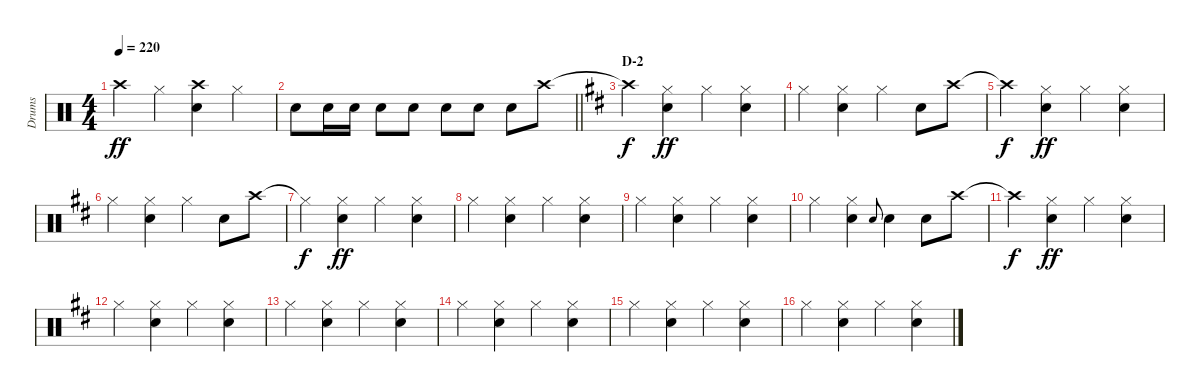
\track ("Drums" "Drums") {instrument percussion}
\staff {score}
\articulation defaults
\ts (4 4)
\tempo 220
\clef neutral
\ks c "Crash high (hit)".4{dy ff} "Hi-Hat (closed)".4
("Crash high (hit)" "Snare (hit) 2").4 "Hi-Hat (closed)".4 |
\barLineRight lightlight "Snare (hit) 2".8 "Snare (hit) 2".16 "Snare (hit) 2".16 "Snare (hit) 2".8 "Snare (hit) 2".8 "Snare (hit) 2".8 "Snare (hit) 2".8 "Snare (hit) 2".8 "Crash high (hit)".8
|
\section ("" "D-2")
\ks d "Crash high (hit)"{t}.4{dy f}
("Hi-Hat (closed)" "Snare (hit) 2").4{dy ff} "Hi-Hat (closed)".4 ("Hi-Hat (closed)" "Snare (hit) 2").4 |
"Hi-Hat (closed)".4 ("Hi-Hat (closed)" "Snare (hit) 2").4 "Hi-Hat (closed)".4 "Snare (hit) 2".8 "Crash high (hit)".8 |
"Crash high (hit)"{t}.4{dy f} ("Hi-Hat (closed)" "Snare (hit) 2").4{dy ff} "Hi-Hat (closed)".4 ("Hi-Hat (closed)" "Snare (hit) 2").4 |
"Hi-Hat (closed)".4 ("Hi-Hat (closed)" "Snare (hit) 2").4 "Hi-Hat (closed)".4 "Snare (hit) 2".8 "Crash high (hit)".8 |
"Hi-Hat (closed)"{t}.4{dy f} ("Hi-Hat (closed)" "Snare (hit) 2").4{dy ff} "Hi-Hat (closed)".4 ("Hi-Hat (closed)" "Snare (hit) 2").4 |
"Hi-Hat (closed)".4 ("Hi-Hat (closed)" "Snare (hit) 2").4 "Hi-Hat (closed)".4 ("Hi-Hat (closed)" "Snare (hit) 2").4 |
"Hi-Hat (closed)".4 ("Hi-Hat (closed)" "Snare (hit) 2").4 "Hi-Hat (closed)".4 ("Hi-Hat (closed)" "Snare (hit) 2").4 |
"Hi-Hat (closed)".4 ("Hi-Hat (closed)" "Snare (hit) 2").4 "Snare (hit) 2".8{gr onbeat} "Snare (hit) 2".4 "Snare (hit) 2".8 "Crash high (hit)".8 |
"Crash high (hit)"{t}.4{dy f} ("Hi-Hat (closed)" "Snare (hit) 2").4{dy ff} "Hi-Hat (closed)".4 ("Hi-Hat (closed)" "Snare (hit) 2").4 |
"Hi-Hat (closed)".4 ("Hi-Hat (closed)" "Snare (hit) 2").4 "Hi-Hat (closed)".4 ("Hi-Hat (closed)" "Snare (hit) 2").4 |
"Hi-Hat (closed)".4 ("Hi-Hat (closed)" "Snare (hit) 2").4 "Hi-Hat (closed)".4 ("Hi-Hat (closed)" "Snare (hit) 2").4 |
"Hi-Hat (closed)".4 ("Hi-Hat (closed)" "Snare (hit) 2").4 "Hi-Hat (closed)".4 ("Hi-Hat (closed)" "Snare (hit) 2").4 |
"Hi-Hat (closed)".4 ("Hi-Hat (closed)" "Snare (hit) 2").4 "Hi-Hat (closed)".4 ("Hi-Hat (closed)" "Snare (hit) 2").4 |
"Hi-Hat (closed)".4 ("Hi-Hat (closed)" "Snare (hit) 2").4 "Hi-Hat (closed)".4 ("Hi-Hat (closed)" "Snare (hit) 2").4
